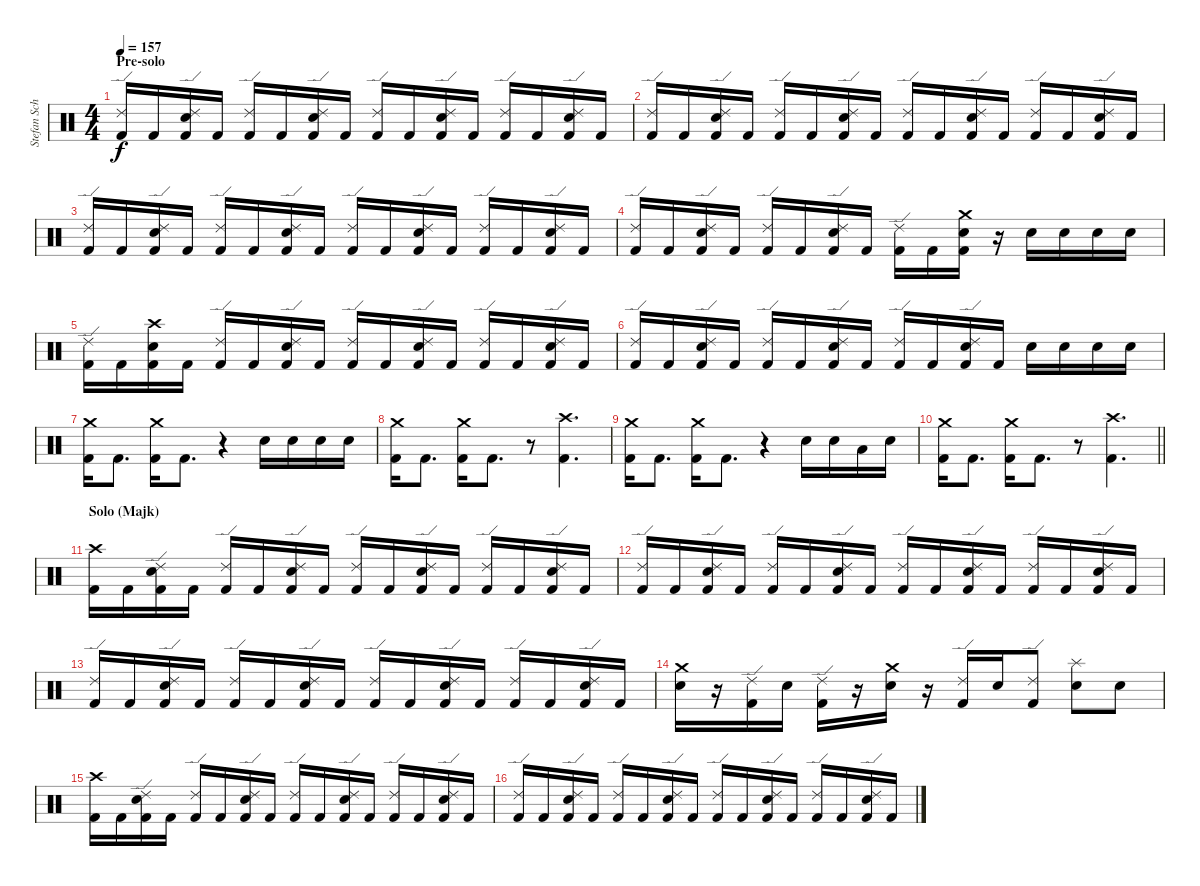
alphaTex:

\track ("Stefan Schwarzmann" "Stefan Sch") {instrument percussion}
\staff {score}
\articulation defaults
\ts (4 4)
\section ("" "Pre-solo")
\tempo 157
\clef neutral
\ks c
("Ride (edge) 2" "Kick (hit) 2").16{dy f} "Kick (hit) 2".16 ("Ride (edge) 2" "Snare (hit) 2" "Kick (hit) 2").16 "Kick (hit) 2".16 ("Ride (edge) 2" "Kick (hit) 2").16 "Kick (hit) 2".16 ("Ride (edge) 2" "Snare (hit) 2" "Kick (hit) 2").16 "Kick (hit) 2".16 ("Ride (edge) 2" "Kick (hit) 2").16 "Kick (hit) 2".16 ("Ride (edge) 2" "Snare (hit) 2" "Kick (hit) 2").16 "Kick (hit) 2".16 ("Ride (edge) 2" "Kick (hit) 2").16 "Kick (hit) 2".16 ("Ride (edge) 2" "Snare (hit) 2" "Kick (hit) 2").16 "Kick (hit) 2".16 |
("Ride (edge) 2" "Kick (hit) 2").16 "Kick (hit) 2".16 ("Ride (edge) 2" "Snare (hit) 2" "Kick (hit) 2").16 "Kick (hit) 2".16 ("Ride (edge) 2" "Kick (hit) 2").16 "Kick (hit) 2".16 ("Ride (edge) 2" "Snare (hit) 2" "Kick (hit) 2").16 "Kick (hit) 2".16 ("Ride (edge) 2" "Kick (hit) 2").16 "Kick (hit) 2".16 ("Ride (edge) 2" "Snare (hit) 2" "Kick (hit) 2").16 "Kick (hit) 2".16 ("Ride (edge) 2" "Kick (hit) 2").16 "Kick (hit) 2".16 ("Ride (edge) 2" "Snare (hit) 2" "Kick (hit) 2").16 "Kick (hit) 2".16 |
("Ride (edge) 2" "Kick (hit) 2").16 "Kick (hit) 2".16 ("Ride (edge) 2" "Snare (hit) 2" "Kick (hit) 2").16 "Kick (hit) 2".16 ("Ride (edge) 2" "Kick (hit) 2").16 "Kick (hit) 2".16 ("Ride (edge) 2" "Snare (hit) 2" "Kick (hit) 2").16 "Kick (hit) 2".16 ("Ride (edge) 2" "Kick (hit) 2").16 "Kick (hit) 2".16 ("Ride (edge) 2" "Snare (hit) 2" "Kick (hit) 2").16 "Kick (hit) 2".16 ("Ride (edge) 2" "Kick (hit) 2").16 "Kick (hit) 2".16 ("Ride (edge) 2" "Snare (hit) 2" "Kick (hit) 2").16 "Kick (hit) 2".16 |
("Ride (edge) 2" "Kick (hit) 2").16 "Kick (hit) 2".16 ("Ride (edge) 2" "Snare (hit) 2" "Kick (hit) 2").16 "Kick (hit) 2".16 ("Ride (edge) 2" "Kick (hit) 2").16 "Kick (hit) 2".16 ("Ride (edge) 2" "Snare (hit) 2" "Kick (hit) 2").16 "Kick (hit) 2".16 ("Ride (edge) 2" "Kick (hit) 2").16 "Kick (hit) 2".16 ("Crash medium (hit)" "Snare (hit) 2" "Kick (hit) 2").16 r.16 "Snare (hit) 2".16 "Snare (hit) 2".16 "Snare (hit) 2".16 "Snare (hit) 2".16 |
("Ride (edge) 2" "Kick (hit) 2").16 "Kick (hit) 2".16 ("Crash high (hit)" "Snare (hit) 2" "Kick (hit) 2").16 "Kick (hit) 2".16 ("Ride (edge) 2" "Kick (hit) 2").16 "Kick (hit) 2".16 ("Ride (edge) 2" "Snare (hit) 2" "Kick (hit) 2").16 "Kick (hit) 2".16 ("Ride (edge) 2" "Kick (hit) 2").16 "Kick (hit) 2".16 ("Ride (edge) 2" "Snare (hit) 2" "Kick (hit) 2").16 "Kick (hit) 2".16 ("Ride (edge) 2" "Kick (hit) 2").16 "Kick (hit) 2".16 ("Ride (edge) 2" "Snare (hit) 2" "Kick (hit) 2").16 "Kick (hit) 2".16 |
("Ride (edge) 2" "Kick (hit) 2").16 "Kick (hit) 2".16 ("Ride (edge) 2" "Snare (hit) 2" "Kick (hit) 2").16 "Kick (hit) 2".16 ("Ride (edge) 2" "Kick (hit) 2").16 "Kick (hit) 2".16 ("Ride (edge) 2" "Snare (hit) 2" "Kick (hit) 2").16 "Kick (hit) 2".16 ("Ride (edge) 2" "Kick (hit) 2").16 "Kick (hit) 2".16 ("Ride (edge) 2" "Snare (hit) 2" "Kick (hit) 2").16 "Kick (hit) 2".16 "Snare (hit) 2".16 "Snare (hit) 2".16 "Snare (hit) 2".16 "Snare (hit) 2".16 |
("Crash medium (hit)" "Kick (hit) 2").16 "Kick (hit) 2".8{d} ("Crash medium (hit)" "Kick (hit) 2").16 "Kick (hit) 2".8{d} r.4 "Snare (hit) 2".16 "Snare (hit) 2".16 "Snare (hit) 2".16 "Snare (hit) 2".16 |
("Crash medium (hit)" "Kick (hit) 2").16 "Kick (hit) 2".8{d} ("Crash medium (hit)" "Kick (hit) 2").16 "Kick (hit) 2".8{d} r.8 ("Crash high (hit)" "Kick (hit) 2").4{d} |
("Crash medium (hit)" "Kick (hit) 2").16 "Kick (hit) 2".8{d} ("Crash medium (hit)" "Kick (hit) 2").16 "Kick (hit) 2".8{d} r.4 "Snare (hit) 2".16 "Snare (hit) 2".16 "Low Tom (hit)".16 "Snare (hit) 2".16 |
\barLineRight lightlight
("Crash medium (hit)" "Kick (hit) 2").16 "Kick (hit) 2".8{d} ("Crash medium (hit)" "Kick (hit) 2").16 "Kick (hit) 2".8{d} r.8 ("Crash high (hit)" "Kick (hit) 2").4{d} |
\section ("" "Solo (Majk)")
("Crash high (hit)" "Kick (hit) 2").16 "Kick (hit) 2".16 ("Ride (edge) 2" "Snare (hit) 2" "Kick (hit) 2").16 "Kick (hit) 2".16 ("Ride (edge) 2" "Kick (hit) 2").16 "Kick (hit) 2".16 ("Ride (edge) 2" "Snare (hit) 2" "Kick (hit) 2").16 "Kick (hit) 2".16 ("Ride (edge) 2" "Kick (hit) 2").16 "Kick (hit) 2".16 ("Ride (edge) 2" "Snare (hit) 2" "Kick (hit) 2").16 "Kick (hit) 2".16 ("Ride (edge) 2" "Kick (hit) 2").16 "Kick (hit) 2".16 ("Ride (edge) 2" "Snare (hit) 2" "Kick (hit) 2").16 "Kick (hit) 2".16 |
("Ride (edge) 2" "Kick (hit) 2").16 "Kick (hit) 2".16 ("Ride (edge) 2" "Snare (hit) 2" "Kick (hit) 2").16 "Kick (hit) 2".16 ("Ride (edge) 2" "Kick (hit) 2").16 "Kick (hit) 2".16 ("Ride (edge) 2" "Snare (hit) 2" "Kick (hit) 2").16 "Kick (hit) 2".16 ("Ride (edge) 2" "Kick (hit) 2").16 "Kick (hit) 2".16 ("Ride (edge) 2" "Snare (hit) 2" "Kick (hit) 2").16 "Kick (hit) 2".16 ("Ride (edge) 2" "Kick (hit) 2").16 "Kick (hit) 2".16 ("Ride (edge) 2" "Snare (hit) 2" "Kick (hit) 2").16 "Kick (hit) 2".16 |
("Ride (edge) 2" "Kick (hit) 2").16 "Kick (hit) 2".16 ("Ride (edge) 2" "Snare (hit) 2" "Kick (hit) 2").16 "Kick (hit) 2".16 ("Ride (edge) 2" "Kick (hit) 2").16 "Kick (hit) 2".16 ("Ride (edge) 2" "Snare (hit) 2" "Kick (hit) 2").16 "Kick (hit) 2".16 ("Ride (edge) 2" "Kick (hit) 2").16 "Kick (hit) 2".16 ("Ride (edge) 2" "Snare (hit) 2" "Kick (hit) 2").16 "Kick (hit) 2".16 ("Ride (edge) 2" "Kick (hit) 2").16 "Kick (hit) 2".16 ("Ride (edge) 2" "Snare (hit) 2" "Kick (hit) 2").16 "Kick (hit) 2".16 |
("Crash medium (hit)" "Snare (hit) 2").16 r.16 ("Ride (edge) 2" "Kick (hit) 2").16 "Snare (hit) 2".16 ("Ride (edge) 2" "Kick (hit) 2").16 r.16 ("Crash medium (hit)" "Snare (hit) 2").16 r.16 ("Ride (edge) 2" "Kick (hit) 2").16 "Snare (hit) 2".16 ("Ride (edge) 2" "Kick (hit) 2").8 ("Splash (hit)" "Snare (hit) 2").8 "Snare (hit) 2".8 |
("Crash high (hit)" "Kick (hit) 2").16 "Kick (hit) 2".16 ("Ride (edge) 2" "Snare (hit) 2" "Kick (hit) 2").16 "Kick (hit) 2".16 ("Ride (edge) 2" "Kick (hit) 2").16 "Kick (hit) 2".16 ("Ride (edge) 2" "Snare (hit) 2" "Kick (hit) 2").16 "Kick (hit) 2".16 ("Ride (edge) 2" "Kick (hit) 2").16 "Kick (hit) 2".16 ("Ride (edge) 2" "Snare (hit) 2" "Kick (hit) 2").16 "Kick (hit) 2".16 ("Ride (edge) 2" "Kick (hit) 2").16 "Kick (hit) 2".16 ("Ride (edge) 2" "Snare (hit) 2" "Kick (hit) 2").16 "Kick (hit) 2".16 |
("Ride (edge) 2" "Kick (hit) 2").16 "Kick (hit) 2".16 ("Ride (edge) 2" "Snare (hit) 2" "Kick (hit) 2").16 "Kick (hit) 2".16 ("Ride (edge) 2" "Kick (hit) 2").16 "Kick (hit) 2".16 ("Ride (edge) 2" "Snare (hit) 2" "Kick (hit) 2").16 "Kick (hit) 2".16 ("Ride (edge) 2" "Kick (hit) 2").16 "Kick (hit) 2".16 ("Ride (edge) 2" "Snare (hit) 2" "Kick (hit) 2").16 "Kick (hit) 2".16 ("Ride (edge) 2" "Kick (hit) 2").16 "Kick (hit) 2".16 ("Ride (edge) 2" "Snare (hit) 2" "Kick (hit) 2").16 "Kick (hit) 2".16
